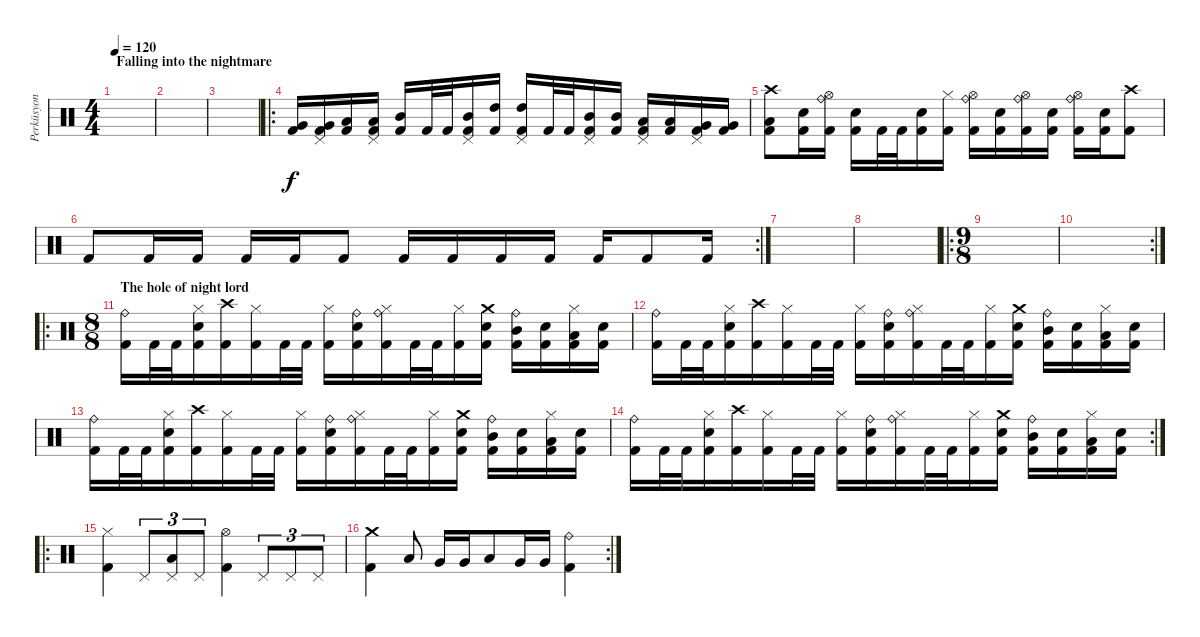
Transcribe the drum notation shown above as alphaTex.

\track ("Perküsyon" "Perküsyon") {instrument percussion}
\staff {score}
\articulation defaults
\ts (4 4)
\section ("" "Falling into the nightmare")
\tempo 120
\clef neutral
\ks c
|
|
|
\ro
("Kick (hit) 2" "Very Low Tom (hit)").16 ("Kick (hit) 2" "Very Low Tom (hit)" "Pedal Hi-Hat (hit)").16 ("Kick (hit) 2" "Low Tom (hit)").16 ("Kick (hit) 2" "Low Tom (hit)" "Pedal Hi-Hat (hit)").16 ("Kick (hit) 2" "Mid Tom (hit)").16 "Kick (hit) 2".32 "Kick (hit) 2".32 ("Kick (hit) 2" "Mid Tom (hit)" "Pedal Hi-Hat (hit)").16 ("Kick (hit) 2" "High Tom (hit)").16 ("Kick (hit) 2" "High Tom (hit)" "Pedal Hi-Hat (hit)").16 "Kick (hit) 2".32 "Kick (hit) 2".32 ("Kick (hit) 2" "Mid Tom (hit)" "Pedal Hi-Hat (hit)").16 ("Kick (hit) 2" "Mid Tom (hit)").16 ("Kick (hit) 2" "Low Tom (hit)" "Pedal Hi-Hat (hit)").16 ("Kick (hit) 2" "Low Tom (hit)").16 ("Kick (hit) 2" "Very Low Tom (hit)" "Pedal Hi-Hat (hit)").16 ("Kick (hit) 2" "Very Low Tom (hit)").16 |
("Kick (hit) 2" "Low Tom (hit)" "Crash high (hit)").8 ("Kick (hit) 2" "Snare (hit) 2").16 ("Kick (hit) 2" "Ride (bell)" "Hi-Hat (open)").16 ("Kick (hit) 2" "Snare (hit) 2").16 "Kick (hit) 2".32 "Kick (hit) 2".32 ("Kick (hit) 2" "Snare (hit) 2").16 ("Kick (hit) 2" "Hi-Hat (closed)").16 ("Kick (hit) 2" "Hi-Hat (open)" "Ride (bell)").16 ("Kick (hit) 2" "Snare (hit) 2").16 ("Kick (hit) 2" "Hi-Hat (open)" "Ride (bell)").16 ("Kick (hit) 2" "Snare (hit) 2").16 ("Kick (hit) 2" "Hi-Hat (open)" "Ride (bell)").16 ("Kick (hit) 2" "Snare (hit) 2").16 ("Kick (hit) 2" "Crash high (hit)").8 |
\rc 2 "Kick (hit) 2".8 "Kick (hit) 2".16 "Kick (hit) 2".16 "Kick (hit) 2".16 "Kick (hit) 2".16 "Kick (hit) 2".8 "Kick (hit) 2".16 "Kick (hit) 2".16 "Kick (hit) 2".16 "Kick (hit) 2".16 "Kick (hit) 2".16 "Kick (hit) 2".8 "Kick (hit) 2".16
|
|
|
\ro
\ts (9 8)
|
\rc 2
|
\ro
\ts (8 8)
\section ("" "The hole of night lord")
("Kick (hit) 2" "Ride (bell)").16 "Kick (hit) 2".32 "Kick (hit) 2".32 ("Kick (hit) 2" "Snare (hit) 2" "Hi-Hat (closed)").16 ("Kick (hit) 2" "Crash high (hit)").16 ("Kick (hit) 2" "Hi-Hat (closed)").16 "Kick (hit) 2".32 "Kick (hit) 2".32 ("Kick (hit) 2" "Hi-Hat (closed)").16 ("Kick (hit) 2" "Ride (bell)" "Snare (hit) 2").16 ("Kick (hit) 2" "Ride (bell)" "Hi-Hat (closed)").16 "Kick (hit) 2".32 "Kick (hit) 2".32 ("Kick (hit) 2" "Hi-Hat (closed)").16 ("Kick (hit) 2" "Snare (hit) 2" "Crash medium (hit)").16 ("Kick (hit) 2" "Mid Tom (hit)" "Ride (bell)").16 ("Kick (hit) 2" "Snare (hit) 2").16 ("Kick (hit) 2" "Low Tom (hit)" "Hi-Hat (closed)").16 ("Kick (hit) 2" "Snare (hit) 2").16 |
("Kick (hit) 2" "Ride (bell)").16 "Kick (hit) 2".32 "Kick (hit) 2".32 ("Kick (hit) 2" "Snare (hit) 2" "Hi-Hat (closed)").16 ("Kick (hit) 2" "Crash high (hit)").16 ("Kick (hit) 2" "Hi-Hat (closed)").16 "Kick (hit) 2".32 "Kick (hit) 2".32 ("Kick (hit) 2" "Hi-Hat (closed)").16 ("Kick (hit) 2" "Ride (bell)" "Snare (hit) 2").16 ("Kick (hit) 2" "Ride (bell)" "Hi-Hat (closed)").16 "Kick (hit) 2".32 "Kick (hit) 2".32 ("Kick (hit) 2" "Hi-Hat (closed)").16 ("Kick (hit) 2" "Snare (hit) 2" "Crash medium (hit)").16 ("Kick (hit) 2" "Mid Tom (hit)" "Ride (bell)").16 ("Kick (hit) 2" "Snare (hit) 2").16 ("Kick (hit) 2" "Low Tom (hit)" "Hi-Hat (closed)").16 ("Kick (hit) 2" "Snare (hit) 2").16 |
("Kick (hit) 2" "Ride (bell)").16 "Kick (hit) 2".32 "Kick (hit) 2".32 ("Kick (hit) 2" "Snare (hit) 2" "Hi-Hat (closed)").16 ("Kick (hit) 2" "Crash high (hit)").16 ("Kick (hit) 2" "Hi-Hat (closed)").16 "Kick (hit) 2".32 "Kick (hit) 2".32 ("Kick (hit) 2" "Hi-Hat (closed)").16 ("Kick (hit) 2" "Ride (bell)" "Snare (hit) 2").16 ("Kick (hit) 2" "Ride (bell)" "Hi-Hat (closed)").16 "Kick (hit) 2".32 "Kick (hit) 2".32 ("Kick (hit) 2" "Hi-Hat (closed)").16 ("Kick (hit) 2" "Snare (hit) 2" "Crash medium (hit)").16 ("Kick (hit) 2" "Mid Tom (hit)" "Ride (bell)").16 ("Kick (hit) 2" "Snare (hit) 2").16 ("Kick (hit) 2" "Low Tom (hit)" "Hi-Hat (closed)").16 ("Kick (hit) 2" "Snare (hit) 2").16 |
\rc 2
("Kick (hit) 2" "Ride (bell)").16 "Kick (hit) 2".32 "Kick (hit) 2".32 ("Kick (hit) 2" "Snare (hit) 2" "Hi-Hat (closed)").16 ("Kick (hit) 2" "Crash high (hit)").16 ("Kick (hit) 2" "Hi-Hat (closed)").16 "Kick (hit) 2".32 "Kick (hit) 2".32 ("Kick (hit) 2" "Hi-Hat (closed)").16 ("Kick (hit) 2" "Ride (bell)" "Snare (hit) 2").16 ("Kick (hit) 2" "Ride (bell)" "Hi-Hat (closed)").16 "Kick (hit) 2".32 "Kick (hit) 2".32 ("Kick (hit) 2" "Hi-Hat (closed)").16 ("Kick (hit) 2" "Snare (hit) 2" "Crash medium (hit)").16 ("Kick (hit) 2" "Mid Tom (hit)" "Ride (bell)").16 ("Kick (hit) 2" "Snare (hit) 2").16 ("Kick (hit) 2" "Low Tom (hit)" "Hi-Hat (closed)").16 ("Kick (hit) 2" "Snare (hit) 2").16 |
\ro
("Kick (hit) 2" "Hi-Hat (closed)").4 "Pedal Hi-Hat (hit)".8{tu (3 2)} ("Pedal Hi-Hat (hit)" "Low Tom (hit)").8{tu (3 2)} "Pedal Hi-Hat (hit)".8{tu (3 2)} ("Hi-Hat (open)" "Kick (hit) 2").4 "Pedal Hi-Hat (hit)".8{tu (3 2)} "Pedal Hi-Hat (hit)".8{tu (3 2)} "Pedal Hi-Hat (hit)".8{tu (3 2)} |
\rc 2
("Kick (hit) 2" "Crash medium (hit)").4 "Low Tom (hit)".8 "Very Low Tom (hit)".16 "Very Low Tom (hit)".16 "Low Tom (hit)".8 "Very Low Tom (hit)".16 "Very Low Tom (hit)".16 ("Ride (bell)" "Kick (hit) 2").4
